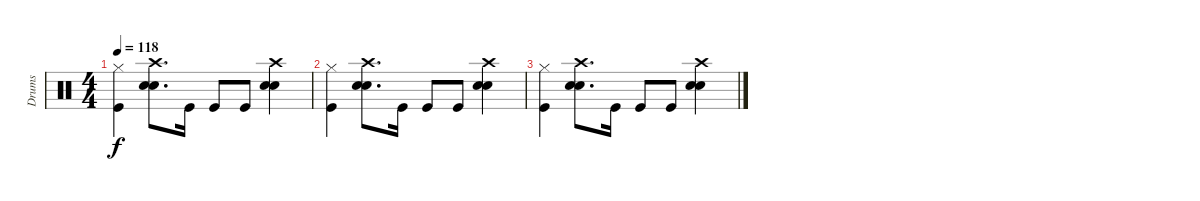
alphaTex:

\track ("Drums" "Drums") {instrument percussion}
\staff {score}
\articulation defaults
\ts (4 4)
\tempo 118
\clef neutral
\ks c
("Hi-Hat (closed)" "Kick (hit)").4{dy f} ("Crash high (hit)" "Electric Snare (hit)" "Snare (hit) 2").8{d} "Kick (hit)".16 "Kick (hit)".8 "Kick (hit)".8 ("Crash high (hit)" "Electric Snare (hit)" "Snare (hit) 2").4 |
("Hi-Hat (closed)" "Kick (hit)").4 ("Crash high (hit)" "Electric Snare (hit)" "Snare (hit) 2").8{d} "Kick (hit)".16 "Kick (hit)".8 "Kick (hit)".8 ("Crash high (hit)" "Electric Snare (hit)" "Snare (hit) 2").4 |
("Hi-Hat (closed)" "Kick (hit)").4 ("Crash high (hit)" "Electric Snare (hit)" "Snare (hit) 2").8{d} "Kick (hit)".16 "Kick (hit)".8 "Kick (hit)".8 ("Crash high (hit)" "Electric Snare (hit)" "Snare (hit) 2").4
